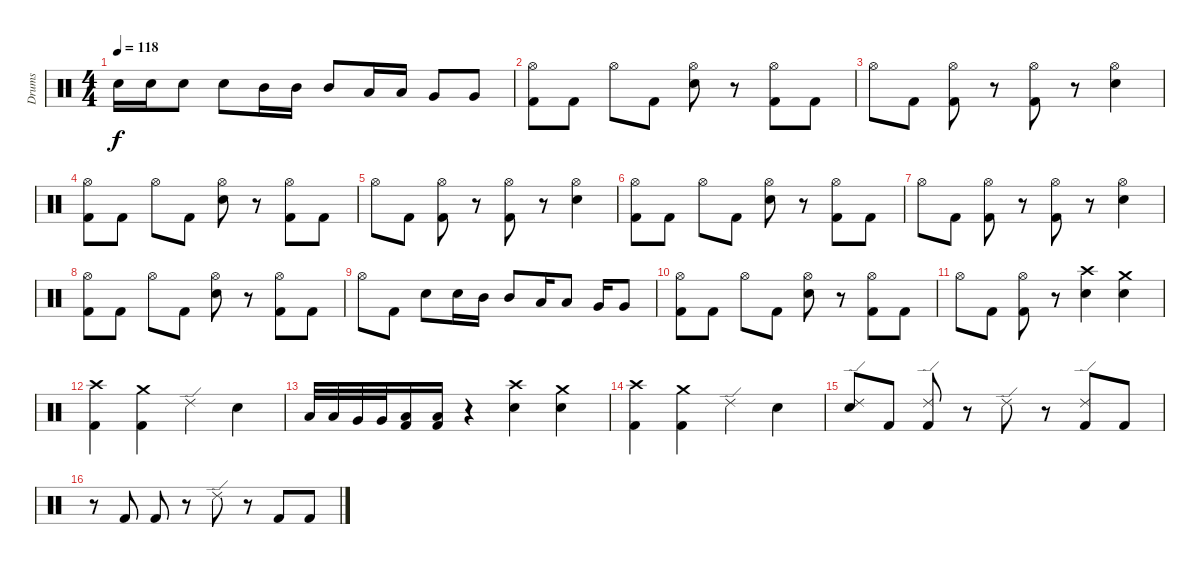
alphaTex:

\track ("Drums" "Drums") {instrument percussion}
\staff {score}
\articulation defaults
\ts (4 4)
\tempo 118
\clef neutral
\ks c "Electric Snare (hit)".16{dy f} "Electric Snare (hit)".16 "Electric Snare (hit)".8 "Electric Snare (hit)".8 "Mid Tom (hit)".16 "Mid Tom (hit)".16 "Mid Tom (hit)".8 "Low Tom (hit)".16 "Low Tom (hit)".16 "Very Low Tom (hit)".8 "Very Low Tom (hit)".8
|
("Hi-Hat (open)" "Kick (hit) 2").8 "Kick (hit) 2".8 "Hi-Hat (open)".8 "Kick (hit) 2".8 ("Hi-Hat (open)" "Electric Snare (hit)").8 r.8 ("Hi-Hat (open)" "Kick (hit) 2").8 "Kick (hit) 2".8 |
"Hi-Hat (open)".8 "Kick (hit) 2".8 ("Hi-Hat (open)" "Kick (hit) 2").8 r.8 ("Hi-Hat (open)" "Kick (hit) 2").8 r.8 ("Hi-Hat (open)" "Electric Snare (hit)").4 |
("Hi-Hat (open)" "Kick (hit) 2").8 "Kick (hit) 2".8 "Hi-Hat (open)".8 "Kick (hit) 2".8 ("Hi-Hat (open)" "Electric Snare (hit)").8 r.8 ("Hi-Hat (open)" "Kick (hit) 2").8 "Kick (hit) 2".8 |
"Hi-Hat (open)".8 "Kick (hit) 2".8 ("Hi-Hat (open)" "Kick (hit) 2").8 r.8 ("Hi-Hat (open)" "Kick (hit) 2").8 r.8 ("Hi-Hat (open)" "Electric Snare (hit)").4 |
("Hi-Hat (open)" "Kick (hit) 2").8 "Kick (hit) 2".8 "Hi-Hat (open)".8 "Kick (hit) 2".8 ("Hi-Hat (open)" "Electric Snare (hit)").8 r.8 ("Hi-Hat (open)" "Kick (hit) 2").8 "Kick (hit) 2".8 |
"Hi-Hat (open)".8 "Kick (hit) 2".8 ("Hi-Hat (open)" "Kick (hit) 2").8 r.8 ("Hi-Hat (open)" "Kick (hit) 2").8 r.8 ("Hi-Hat (open)" "Electric Snare (hit)").4 |
("Hi-Hat (open)" "Kick (hit) 2").8 "Kick (hit) 2".8 "Hi-Hat (open)".8 "Kick (hit) 2".8 ("Hi-Hat (open)" "Electric Snare (hit)").8 r.8 ("Hi-Hat (open)" "Kick (hit) 2").8 "Kick (hit) 2".8 |
"Hi-Hat (open)".8 "Kick (hit) 2".8 "Electric Snare (hit)".8 "Electric Snare (hit)".16 "Mid Tom (hit)".16 "Mid Tom (hit)".8 "Low Tom (hit)".16 "Low Tom (hit)".8 "Very Low Tom (hit)".16 "Very Low Tom (hit)".8 |
("Hi-Hat (open)" "Kick (hit) 2").8 "Kick (hit) 2".8 "Hi-Hat (open)".8 "Kick (hit) 2".8 ("Hi-Hat (open)" "Electric Snare (hit)").8 r.8 ("Hi-Hat (open)" "Kick (hit) 2").8 "Kick (hit) 2".8 |
"Hi-Hat (open)".8 "Kick (hit) 2".8 ("Hi-Hat (open)" "Kick (hit) 2").8 r.8 ("Crash high (hit)" "Electric Snare (hit)").4 ("Crash medium (hit)" "Electric Snare (hit)").4 |
("Crash high (hit)" "Kick (hit) 2").4 ("Crash medium (hit)" "Kick (hit) 2").4 "Ride (edge) 2".4 "Electric Snare (hit)".4 |
"Low Tom (hit)".32 "Low Tom (hit)".32 "Very Low Tom (hit)".32 "Very Low Tom (hit)".32 ("Low Floor Tom (hit)" "Kick (hit) 2").16 ("Low Floor Tom (hit)" "Kick (hit) 2").16 r.4 ("Crash high (hit)" "Electric Snare (hit)").4 ("Crash medium (hit)" "Electric Snare (hit)").4 |
("Crash high (hit)" "Kick (hit) 2").4 ("Crash medium (hit)" "Kick (hit) 2").4 "Ride (edge) 2".4 "Electric Snare (hit)".4 |
("Ride (edge) 2" "Electric Snare (hit)").8 "Kick (hit) 2".8 ("Ride (edge) 2" "Kick (hit) 2").8 r.8 "Ride (edge) 2".8 r.8 ("Ride (edge) 2" "Kick (hit) 2").8 "Kick (hit) 2".8 |
r.8 "Kick (hit) 2".8 "Kick (hit) 2".8 r.8 "Ride (edge) 2".8 r.8 "Kick (hit) 2".8 "Kick (hit) 2".8
